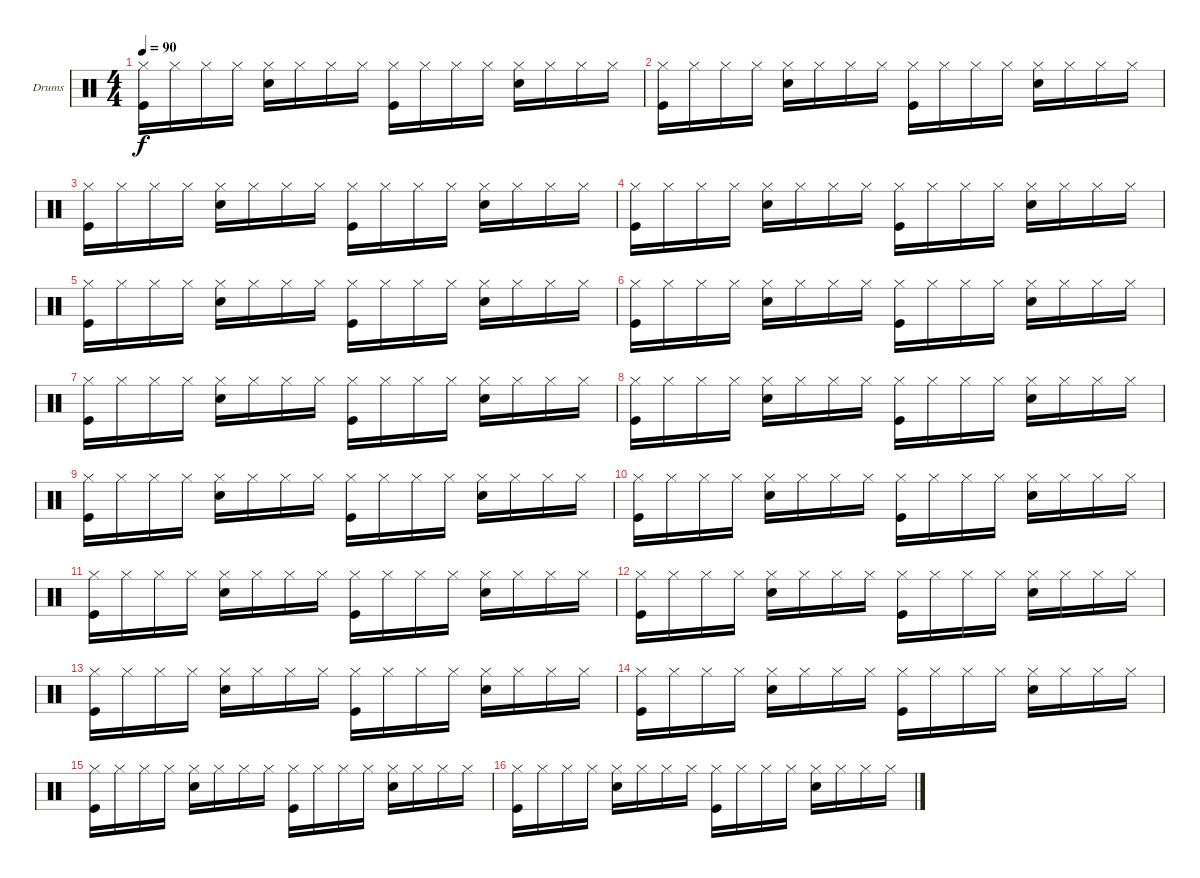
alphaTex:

\defaultSystemsLayout 4
\bracketExtendMode groupsimilarinstruments
\firstSystemTrackNameOrientation horizontal
\otherSystemsTrackNameOrientation horizontal
\track ("Drumkit" "Drums") {instrument percussion}
\staff {score}
\articulation defaults
\ts (4 4)
\tempo 90
\clef neutral
\ks c
("Hi-Hat (closed)" "Kick (hit)").16{dy f} "Hi-Hat (closed)".16 "Hi-Hat (closed)".16 "Hi-Hat (closed)".16 ("Snare (hit) 2" "Hi-Hat (closed)").16 "Hi-Hat (closed)".16 "Hi-Hat (closed)".16 "Hi-Hat (closed)".16 ("Kick (hit)" "Hi-Hat (closed)").16 "Hi-Hat (closed)".16 "Hi-Hat (closed)".16 "Hi-Hat (closed)".16 ("Hi-Hat (closed)" "Snare (hit) 2").16 "Hi-Hat (closed)".16 "Hi-Hat (closed)".16 "Hi-Hat (closed)".16 |
("Kick (hit)" "Hi-Hat (closed)").16 "Hi-Hat (closed)".16 "Hi-Hat (closed)".16 "Hi-Hat (closed)".16 ("Snare (hit) 2" "Hi-Hat (closed)").16 "Hi-Hat (closed)".16 "Hi-Hat (closed)".16 "Hi-Hat (closed)".16 ("Hi-Hat (closed)" "Kick (hit)").16 "Hi-Hat (closed)".16 "Hi-Hat (closed)".16 "Hi-Hat (closed)".16 ("Snare (hit) 2" "Hi-Hat (closed)").16 "Hi-Hat (closed)".16 "Hi-Hat (closed)".16 "Hi-Hat (closed)".16 |
("Kick (hit)" "Hi-Hat (closed)").16 "Hi-Hat (closed)".16 "Hi-Hat (closed)".16 "Hi-Hat (closed)".16 ("Hi-Hat (closed)" "Snare (hit) 2").16 "Hi-Hat (closed)".16 "Hi-Hat (closed)".16 "Hi-Hat (closed)".16 ("Kick (hit)" "Hi-Hat (closed)").16 "Hi-Hat (closed)".16 "Hi-Hat (closed)".16 "Hi-Hat (closed)".16 ("Snare (hit) 2" "Hi-Hat (closed)").16 "Hi-Hat (closed)".16 "Hi-Hat (closed)".16 "Hi-Hat (closed)".16 |
("Hi-Hat (closed)" "Kick (hit)").16 "Hi-Hat (closed)".16 "Hi-Hat (closed)".16 "Hi-Hat (closed)".16 ("Snare (hit) 2" "Hi-Hat (closed)").16 "Hi-Hat (closed)".16 "Hi-Hat (closed)".16 "Hi-Hat (closed)".16 ("Kick (hit)" "Hi-Hat (closed)").16 "Hi-Hat (closed)".16 "Hi-Hat (closed)".16 "Hi-Hat (closed)".16 ("Hi-Hat (closed)" "Snare (hit) 2").16 "Hi-Hat (closed)".16 "Hi-Hat (closed)".16 "Hi-Hat (closed)".16 |
("Kick (hit)" "Hi-Hat (closed)").16 "Hi-Hat (closed)".16 "Hi-Hat (closed)".16 "Hi-Hat (closed)".16 ("Snare (hit) 2" "Hi-Hat (closed)").16 "Hi-Hat (closed)".16 "Hi-Hat (closed)".16 "Hi-Hat (closed)".16 ("Hi-Hat (closed)" "Kick (hit)").16 "Hi-Hat (closed)".16 "Hi-Hat (closed)".16 "Hi-Hat (closed)".16 ("Snare (hit) 2" "Hi-Hat (closed)").16 "Hi-Hat (closed)".16 "Hi-Hat (closed)".16 "Hi-Hat (closed)".16 |
("Kick (hit)" "Hi-Hat (closed)").16 "Hi-Hat (closed)".16 "Hi-Hat (closed)".16 "Hi-Hat (closed)".16 ("Hi-Hat (closed)" "Snare (hit) 2").16 "Hi-Hat (closed)".16 "Hi-Hat (closed)".16 "Hi-Hat (closed)".16 ("Kick (hit)" "Hi-Hat (closed)").16 "Hi-Hat (closed)".16 "Hi-Hat (closed)".16 "Hi-Hat (closed)".16 ("Snare (hit) 2" "Hi-Hat (closed)").16 "Hi-Hat (closed)".16 "Hi-Hat (closed)".16 "Hi-Hat (closed)".16 |
("Hi-Hat (closed)" "Kick (hit)").16 "Hi-Hat (closed)".16 "Hi-Hat (closed)".16 "Hi-Hat (closed)".16 ("Snare (hit) 2" "Hi-Hat (closed)").16 "Hi-Hat (closed)".16 "Hi-Hat (closed)".16 "Hi-Hat (closed)".16 ("Kick (hit)" "Hi-Hat (closed)").16 "Hi-Hat (closed)".16 "Hi-Hat (closed)".16 "Hi-Hat (closed)".16 ("Hi-Hat (closed)" "Snare (hit) 2").16 "Hi-Hat (closed)".16 "Hi-Hat (closed)".16 "Hi-Hat (closed)".16 |
("Kick (hit)" "Hi-Hat (closed)").16 "Hi-Hat (closed)".16 "Hi-Hat (closed)".16 "Hi-Hat (closed)".16 ("Snare (hit) 2" "Hi-Hat (closed)").16 "Hi-Hat (closed)".16 "Hi-Hat (closed)".16 "Hi-Hat (closed)".16 ("Hi-Hat (closed)" "Kick (hit)").16 "Hi-Hat (closed)".16 "Hi-Hat (closed)".16 "Hi-Hat (closed)".16 ("Snare (hit) 2" "Hi-Hat (closed)").16 "Hi-Hat (closed)".16 "Hi-Hat (closed)".16 "Hi-Hat (closed)".16 |
("Kick (hit)" "Hi-Hat (closed)").16 "Hi-Hat (closed)".16 "Hi-Hat (closed)".16 "Hi-Hat (closed)".16 ("Hi-Hat (closed)" "Snare (hit) 2").16 "Hi-Hat (closed)".16 "Hi-Hat (closed)".16 "Hi-Hat (closed)".16 ("Kick (hit)" "Hi-Hat (closed)").16 "Hi-Hat (closed)".16 "Hi-Hat (closed)".16 "Hi-Hat (closed)".16 ("Snare (hit) 2" "Hi-Hat (closed)").16 "Hi-Hat (closed)".16 "Hi-Hat (closed)".16 "Hi-Hat (closed)".16 |
("Kick (hit)" "Hi-Hat (closed)").16 "Hi-Hat (closed)".16 "Hi-Hat (closed)".16 "Hi-Hat (closed)".16 ("Hi-Hat (closed)" "Snare (hit) 2").16 "Hi-Hat (closed)".16 "Hi-Hat (closed)".16 "Hi-Hat (closed)".16 ("Kick (hit)" "Hi-Hat (closed)").16 "Hi-Hat (closed)".16 "Hi-Hat (closed)".16 "Hi-Hat (closed)".16 ("Snare (hit) 2" "Hi-Hat (closed)").16 "Hi-Hat (closed)".16 "Hi-Hat (closed)".16 "Hi-Hat (closed)".16 |
("Hi-Hat (closed)" "Kick (hit)").16 "Hi-Hat (closed)".16 "Hi-Hat (closed)".16 "Hi-Hat (closed)".16 ("Snare (hit) 2" "Hi-Hat (closed)").16 "Hi-Hat (closed)".16 "Hi-Hat (closed)".16 "Hi-Hat (closed)".16 ("Kick (hit)" "Hi-Hat (closed)").16 "Hi-Hat (closed)".16 "Hi-Hat (closed)".16 "Hi-Hat (closed)".16 ("Hi-Hat (closed)" "Snare (hit) 2").16 "Hi-Hat (closed)".16 "Hi-Hat (closed)".16 "Hi-Hat (closed)".16 |
("Kick (hit)" "Hi-Hat (closed)").16 "Hi-Hat (closed)".16 "Hi-Hat (closed)".16 "Hi-Hat (closed)".16 ("Snare (hit) 2" "Hi-Hat (closed)").16 "Hi-Hat (closed)".16 "Hi-Hat (closed)".16 "Hi-Hat (closed)".16 ("Hi-Hat (closed)" "Kick (hit)").16 "Hi-Hat (closed)".16 "Hi-Hat (closed)".16 "Hi-Hat (closed)".16 ("Snare (hit) 2" "Hi-Hat (closed)").16 "Hi-Hat (closed)".16 "Hi-Hat (closed)".16 "Hi-Hat (closed)".16 |
("Kick (hit)" "Hi-Hat (closed)").16 "Hi-Hat (closed)".16 "Hi-Hat (closed)".16 "Hi-Hat (closed)".16 ("Hi-Hat (closed)" "Snare (hit) 2").16 "Hi-Hat (closed)".16 "Hi-Hat (closed)".16 "Hi-Hat (closed)".16 ("Kick (hit)" "Hi-Hat (closed)").16 "Hi-Hat (closed)".16 "Hi-Hat (closed)".16 "Hi-Hat (closed)".16 ("Snare (hit) 2" "Hi-Hat (closed)").16 "Hi-Hat (closed)".16 "Hi-Hat (closed)".16 "Hi-Hat (closed)".16 |
("Kick (hit)" "Hi-Hat (closed)").16 "Hi-Hat (closed)".16 "Hi-Hat (closed)".16 "Hi-Hat (closed)".16 ("Hi-Hat (closed)" "Snare (hit) 2").16 "Hi-Hat (closed)".16 "Hi-Hat (closed)".16 "Hi-Hat (closed)".16 ("Hi-Hat (closed)" "Kick (hit)").16 "Hi-Hat (closed)".16 "Hi-Hat (closed)".16 "Hi-Hat (closed)".16 ("Snare (hit) 2" "Hi-Hat (closed)").16 "Hi-Hat (closed)".16 "Hi-Hat (closed)".16 "Hi-Hat (closed)".16 |
("Hi-Hat (closed)" "Kick (hit)").16 "Hi-Hat (closed)".16 "Hi-Hat (closed)".16 "Hi-Hat (closed)".16 ("Hi-Hat (closed)" "Snare (hit) 2").16 "Hi-Hat (closed)".16 "Hi-Hat (closed)".16 "Hi-Hat (closed)".16 ("Kick (hit)" "Hi-Hat (closed)").16 "Hi-Hat (closed)".16 "Hi-Hat (closed)".16 "Hi-Hat (closed)".16 ("Hi-Hat (closed)" "Snare (hit) 2").16 "Hi-Hat (closed)".16 "Hi-Hat (closed)".16 "Hi-Hat (closed)".16 |
("Hi-Hat (closed)" "Kick (hit)").16 "Hi-Hat (closed)".16 "Hi-Hat (closed)".16 "Hi-Hat (closed)".16 ("Snare (hit) 2" "Hi-Hat (closed)").16 "Hi-Hat (closed)".16 "Hi-Hat (closed)".16 "Hi-Hat (closed)".16 ("Hi-Hat (closed)" "Kick (hit)").16 "Hi-Hat (closed)".16 "Hi-Hat (closed)".16 "Hi-Hat (closed)".16 ("Hi-Hat (closed)" "Snare (hit) 2").16 "Hi-Hat (closed)".16 "Hi-Hat (closed)".16 "Hi-Hat (closed)".16
